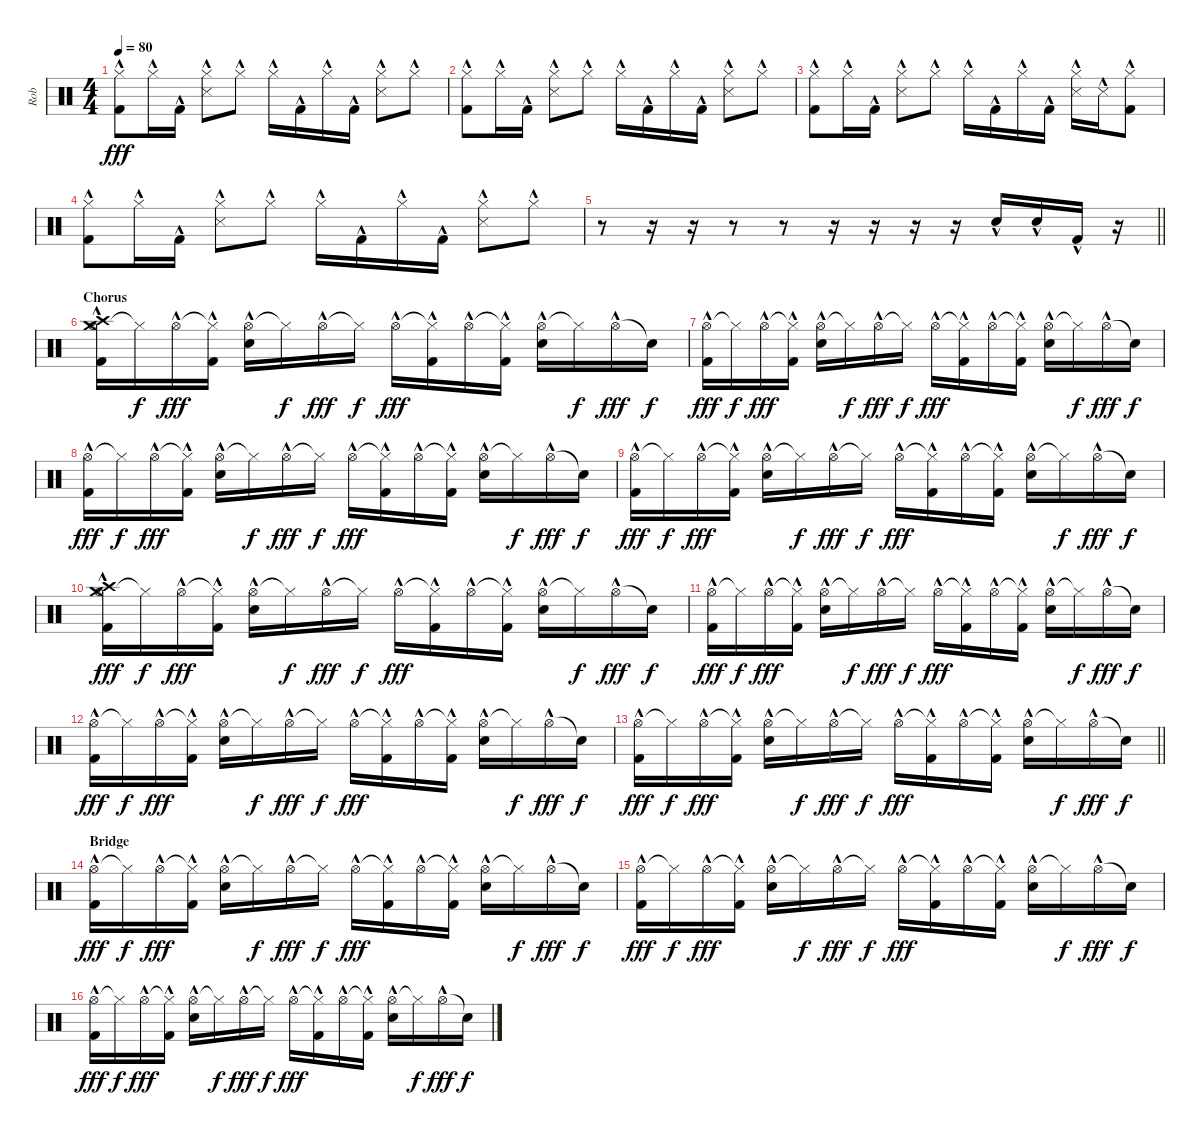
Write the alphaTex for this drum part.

\track ("Rob" "Rob") {instrument percussion}
\staff {score}
\articulation defaults
\ts (4 4)
\tempo 80
\clef neutral
\ks c
("Hi-Hat (closed)"{hac} "Kick (hit) 2"{hac}).8{dy fff} "Hi-Hat (closed)"{hac}.16 "Kick (hit) 2"{hac}.16 ("Hi-Hat (closed)"{hac} "Snare (side stick) 3"{hac}).8 "Hi-Hat (closed)"{hac}.8 "Hi-Hat (closed)"{hac}.16 "Kick (hit) 2"{hac}.16 "Hi-Hat (closed)"{hac}.16 "Kick (hit) 2"{hac}.16 ("Hi-Hat (closed)"{hac} "Snare (side stick) 3"{hac}).8 "Hi-Hat (closed)"{hac}.8 |
("Hi-Hat (closed)"{hac} "Kick (hit) 2"{hac}).8 "Hi-Hat (closed)"{hac}.16 "Kick (hit) 2"{hac}.16 ("Hi-Hat (closed)"{hac} "Snare (side stick) 3"{hac}).8 "Hi-Hat (closed)"{hac}.8 "Hi-Hat (closed)"{hac}.16 "Kick (hit) 2"{hac}.16 "Hi-Hat (closed)"{hac}.16 "Kick (hit) 2"{hac}.16 ("Hi-Hat (closed)"{hac} "Snare (side stick) 3"{hac}).8 "Hi-Hat (closed)"{hac}.8 |
("Hi-Hat (closed)"{hac} "Kick (hit) 2"{hac}).8 "Hi-Hat (closed)"{hac}.16 "Kick (hit) 2"{hac}.16 ("Hi-Hat (closed)"{hac} "Snare (side stick) 3"{hac}).8 "Hi-Hat (closed)"{hac}.8 "Hi-Hat (closed)"{hac}.16 "Kick (hit) 2"{hac}.16 "Hi-Hat (closed)"{hac}.16 "Kick (hit) 2"{hac}.16 ("Hi-Hat (closed)"{hac} "Snare (side stick) 3"{hac}).16 "Snare (side stick) 3"{hac}.16 ("Hi-Hat (closed)"{hac} "Kick (hit) 2"{hac}).8 |
("Hi-Hat (closed)"{hac} "Kick (hit) 2"{hac}).8 "Hi-Hat (closed)"{hac}.16 "Kick (hit) 2"{hac}.16 ("Hi-Hat (closed)"{hac} "Snare (side stick) 3"{hac}).8 "Hi-Hat (closed)"{hac}.8 "Hi-Hat (closed)"{hac}.16 "Kick (hit) 2"{hac}.16 "Hi-Hat (closed)"{hac}.16 "Kick (hit) 2"{hac}.16 ("Hi-Hat (closed)"{hac} "Snare (side stick) 3"{hac}).8 "Hi-Hat (closed)"{hac}.8 |
\barLineRight lightlight
r.8 r.16 r.16 r.8 r.8 r.16 r.16 r.16 r.16 "Electric Snare (hit)"{hac}.16 "Electric Snare (hit)"{hac}.16 "Kick (hit) 2"{hac}.16 r.16 |
\section ("" "Chorus")
("Crash medium (hit)"{hac} "Crash high (hit)"{hac} "Hi-Hat (open)"{hac} "Kick (hit) 2"{hac}).16 "Hi-Hat (closed)"{t}.16{dy f} "Hi-Hat (open)"{hac}.16{dy fff} ("Hi-Hat (closed)"{t} "Kick (hit) 2"{hac}).16 ("Hi-Hat (open)"{hac} "Electric Snare (hit)"{hac}).16 "Hi-Hat (closed)"{t}.16{dy f} "Hi-Hat (open)"{hac}.16{dy fff} "Hi-Hat (closed)"{t}.16{dy f} "Hi-Hat (open)"{hac}.16{dy fff} ("Hi-Hat (closed)"{t} "Kick (hit) 2"{hac}).16 "Hi-Hat (open)"{hac}.16 ("Hi-Hat (closed)"{t} "Kick (hit) 2"{hac}).16 ("Hi-Hat (open)"{hac} "Electric Snare (hit)"{hac}).16 "Hi-Hat (closed)"{t}.16{dy f} "Hi-Hat (open)"{hac}.16{dy fff} "Snare (hit)"{t}.16{dy f} |
("Hi-Hat (open)"{hac} "Kick (hit) 2"{hac}).16{dy fff} "Hi-Hat (closed)"{t}.16{dy f} "Hi-Hat (open)"{hac}.16{dy fff} ("Hi-Hat (closed)"{t} "Kick (hit) 2"{hac}).16 ("Hi-Hat (open)"{hac} "Electric Snare (hit)"{hac}).16 "Hi-Hat (closed)"{t}.16{dy f} "Hi-Hat (open)"{hac}.16{dy fff} "Hi-Hat (closed)"{t}.16{dy f} "Hi-Hat (open)"{hac}.16{dy fff} ("Hi-Hat (closed)"{t} "Kick (hit) 2"{hac}).16 "Hi-Hat (open)"{hac}.16 ("Hi-Hat (closed)"{t} "Kick (hit) 2"{hac}).16 ("Hi-Hat (open)"{hac} "Electric Snare (hit)"{hac}).16 "Hi-Hat (closed)"{t}.16{dy f} "Hi-Hat (open)"{hac}.16{dy fff} "Snare (hit)"{t}.16{dy f} |
("Hi-Hat (open)"{hac} "Kick (hit) 2"{hac}).16{dy fff} "Hi-Hat (closed)"{t}.16{dy f} "Hi-Hat (open)"{hac}.16{dy fff} ("Hi-Hat (closed)"{t} "Kick (hit) 2"{hac}).16 ("Hi-Hat (open)"{hac} "Electric Snare (hit)"{hac}).16 "Hi-Hat (closed)"{t}.16{dy f} "Hi-Hat (open)"{hac}.16{dy fff} "Hi-Hat (closed)"{t}.16{dy f} "Hi-Hat (open)"{hac}.16{dy fff} ("Hi-Hat (closed)"{t} "Kick (hit) 2"{hac}).16 "Hi-Hat (open)"{hac}.16 ("Hi-Hat (closed)"{t} "Kick (hit) 2"{hac}).16 ("Hi-Hat (open)"{hac} "Electric Snare (hit)"{hac}).16 "Hi-Hat (closed)"{t}.16{dy f} "Hi-Hat (open)"{hac}.16{dy fff} "Snare (hit)"{t}.16{dy f} |
("Hi-Hat (open)"{hac} "Kick (hit) 2"{hac}).16{dy fff} "Hi-Hat (closed)"{t}.16{dy f} "Hi-Hat (open)"{hac}.16{dy fff} ("Hi-Hat (closed)"{t} "Kick (hit) 2"{hac}).16 ("Hi-Hat (open)"{hac} "Electric Snare (hit)"{hac}).16 "Hi-Hat (closed)"{t}.16{dy f} "Hi-Hat (open)"{hac}.16{dy fff} "Hi-Hat (closed)"{t}.16{dy f} "Hi-Hat (open)"{hac}.16{dy fff} ("Hi-Hat (closed)"{t} "Kick (hit) 2"{hac}).16 "Hi-Hat (open)"{hac}.16 ("Hi-Hat (closed)"{t} "Kick (hit) 2"{hac}).16 ("Hi-Hat (open)"{hac} "Electric Snare (hit)"{hac}).16 "Hi-Hat (closed)"{t}.16{dy f} "Hi-Hat (open)"{hac}.16{dy fff} "Snare (hit)"{t}.16{dy f} |
("Crash medium (hit)"{hac} "Crash high (hit)"{hac} "Hi-Hat (open)"{hac} "Kick (hit) 2"{hac}).16{dy fff} "Hi-Hat (closed)"{t}.16{dy f} "Hi-Hat (open)"{hac}.16{dy fff} ("Hi-Hat (closed)"{t} "Kick (hit) 2"{hac}).16 ("Hi-Hat (open)"{hac} "Electric Snare (hit)"{hac}).16 "Hi-Hat (closed)"{t}.16{dy f} "Hi-Hat (open)"{hac}.16{dy fff} "Hi-Hat (closed)"{t}.16{dy f} "Hi-Hat (open)"{hac}.16{dy fff} ("Hi-Hat (closed)"{t} "Kick (hit) 2"{hac}).16 "Hi-Hat (open)"{hac}.16 ("Hi-Hat (closed)"{t} "Kick (hit) 2"{hac}).16 ("Hi-Hat (open)"{hac} "Electric Snare (hit)"{hac}).16 "Hi-Hat (closed)"{t}.16{dy f} "Hi-Hat (open)"{hac}.16{dy fff} "Snare (hit)"{t}.16{dy f} |
("Hi-Hat (open)"{hac} "Kick (hit) 2"{hac}).16{dy fff} "Hi-Hat (closed)"{t}.16{dy f} "Hi-Hat (open)"{hac}.16{dy fff} ("Hi-Hat (closed)"{t} "Kick (hit) 2"{hac}).16 ("Hi-Hat (open)"{hac} "Electric Snare (hit)"{hac}).16 "Hi-Hat (closed)"{t}.16{dy f} "Hi-Hat (open)"{hac}.16{dy fff} "Hi-Hat (closed)"{t}.16{dy f} "Hi-Hat (open)"{hac}.16{dy fff} ("Hi-Hat (closed)"{t} "Kick (hit) 2"{hac}).16 "Hi-Hat (open)"{hac}.16 ("Hi-Hat (closed)"{t} "Kick (hit) 2"{hac}).16 ("Hi-Hat (open)"{hac} "Electric Snare (hit)"{hac}).16 "Hi-Hat (closed)"{t}.16{dy f} "Hi-Hat (open)"{hac}.16{dy fff} "Snare (hit)"{t}.16{dy f} |
("Hi-Hat (open)"{hac} "Kick (hit) 2"{hac}).16{dy fff} "Hi-Hat (closed)"{t}.16{dy f} "Hi-Hat (open)"{hac}.16{dy fff} ("Hi-Hat (closed)"{t} "Kick (hit) 2"{hac}).16 ("Hi-Hat (open)"{hac} "Electric Snare (hit)"{hac}).16 "Hi-Hat (closed)"{t}.16{dy f} "Hi-Hat (open)"{hac}.16{dy fff} "Hi-Hat (closed)"{t}.16{dy f} "Hi-Hat (open)"{hac}.16{dy fff} ("Hi-Hat (closed)"{t} "Kick (hit) 2"{hac}).16 "Hi-Hat (open)"{hac}.16 ("Hi-Hat (closed)"{t} "Kick (hit) 2"{hac}).16 ("Hi-Hat (open)"{hac} "Electric Snare (hit)"{hac}).16 "Hi-Hat (closed)"{t}.16{dy f} "Hi-Hat (open)"{hac}.16{dy fff} "Snare (hit)"{t}.16{dy f} |
\barLineRight lightlight
("Hi-Hat (open)"{hac} "Kick (hit) 2"{hac}).16{dy fff} "Hi-Hat (closed)"{t}.16{dy f} "Hi-Hat (open)"{hac}.16{dy fff} ("Hi-Hat (closed)"{t} "Kick (hit) 2"{hac}).16 ("Hi-Hat (open)"{hac} "Electric Snare (hit)"{hac}).16 "Hi-Hat (closed)"{t}.16{dy f} "Hi-Hat (open)"{hac}.16{dy fff} "Hi-Hat (closed)"{t}.16{dy f} "Hi-Hat (open)"{hac}.16{dy fff} ("Hi-Hat (closed)"{t} "Kick (hit) 2"{hac}).16 "Hi-Hat (open)"{hac}.16 ("Hi-Hat (closed)"{t} "Kick (hit) 2"{hac}).16 ("Hi-Hat (open)"{hac} "Electric Snare (hit)"{hac}).16 "Hi-Hat (closed)"{t}.16{dy f} "Hi-Hat (open)"{hac}.16{dy fff} "Snare (hit)"{t}.16{dy f} |
\section ("" "Bridge")
("Hi-Hat (open)"{hac} "Kick (hit) 2"{hac}).16{dy fff} "Hi-Hat (closed)"{t}.16{dy f} "Hi-Hat (open)"{hac}.16{dy fff} ("Hi-Hat (closed)"{t} "Kick (hit) 2"{hac}).16 ("Hi-Hat (open)"{hac} "Electric Snare (hit)"{hac}).16 "Hi-Hat (closed)"{t}.16{dy f} "Hi-Hat (open)"{hac}.16{dy fff} "Hi-Hat (closed)"{t}.16{dy f} "Hi-Hat (open)"{hac}.16{dy fff} ("Hi-Hat (closed)"{t} "Kick (hit) 2"{hac}).16 "Hi-Hat (open)"{hac}.16 ("Hi-Hat (closed)"{t} "Kick (hit) 2"{hac}).16 ("Hi-Hat (open)"{hac} "Electric Snare (hit)"{hac}).16 "Hi-Hat (closed)"{t}.16{dy f} "Hi-Hat (open)"{hac}.16{dy fff} "Snare (hit)"{t}.16{dy f} |
("Hi-Hat (open)"{hac} "Kick (hit) 2"{hac}).16{dy fff} "Hi-Hat (closed)"{t}.16{dy f} "Hi-Hat (open)"{hac}.16{dy fff} ("Hi-Hat (closed)"{t} "Kick (hit) 2"{hac}).16 ("Hi-Hat (open)"{hac} "Electric Snare (hit)"{hac}).16 "Hi-Hat (closed)"{t}.16{dy f} "Hi-Hat (open)"{hac}.16{dy fff} "Hi-Hat (closed)"{t}.16{dy f} "Hi-Hat (open)"{hac}.16{dy fff} ("Hi-Hat (closed)"{t} "Kick (hit) 2"{hac}).16 "Hi-Hat (open)"{hac}.16 ("Hi-Hat (closed)"{t} "Kick (hit) 2"{hac}).16 ("Hi-Hat (open)"{hac} "Electric Snare (hit)"{hac}).16 "Hi-Hat (closed)"{t}.16{dy f} "Hi-Hat (open)"{hac}.16{dy fff} "Snare (hit)"{t}.16{dy f} |
("Hi-Hat (open)"{hac} "Kick (hit) 2"{hac}).16{dy fff} "Hi-Hat (closed)"{t}.16{dy f} "Hi-Hat (open)"{hac}.16{dy fff} ("Hi-Hat (closed)"{t} "Kick (hit) 2"{hac}).16 ("Hi-Hat (open)"{hac} "Electric Snare (hit)"{hac}).16 "Hi-Hat (closed)"{t}.16{dy f} "Hi-Hat (open)"{hac}.16{dy fff} "Hi-Hat (closed)"{t}.16{dy f} "Hi-Hat (open)"{hac}.16{dy fff} ("Hi-Hat (closed)"{t} "Kick (hit) 2"{hac}).16 "Hi-Hat (open)"{hac}.16 ("Hi-Hat (closed)"{t} "Kick (hit) 2"{hac}).16 ("Hi-Hat (open)"{hac} "Electric Snare (hit)"{hac}).16 "Hi-Hat (closed)"{t}.16{dy f} "Hi-Hat (open)"{hac}.16{dy fff} "Snare (hit)"{t}.16{dy f}
